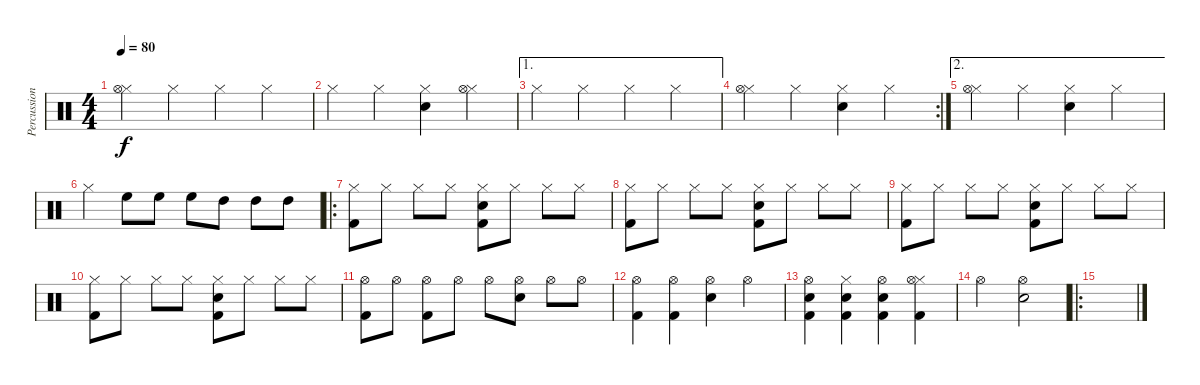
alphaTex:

\track ("Percussion" "Percussion") {instrument percussion}
\staff {score}
\articulation defaults
\ts (4 4)
\tempo 80
\clef neutral
\ks c
("Hi-Hat (closed)" "Hi-Hat (open)").4{dy f} "Hi-Hat (closed)".4 "Hi-Hat (closed)".4 "Hi-Hat (closed)".4 |
"Hi-Hat (closed)".4 "Hi-Hat (closed)".4 ("Hi-Hat (closed)" "Snare (hit) 2").4 ("Hi-Hat (closed)" "Hi-Hat (open)").4 |
\ae 1 "Hi-Hat (closed)".4 "Hi-Hat (closed)".4 "Hi-Hat (closed)".4 "Hi-Hat (closed)".4
|
\rc 2
("Hi-Hat (closed)" "Hi-Hat (open)").4 "Hi-Hat (closed)".4 ("Hi-Hat (closed)" "Snare (hit) 2").4 "Hi-Hat (closed)".4 |
\ae 2
("Hi-Hat (closed)" "Hi-Hat (open)").4 "Hi-Hat (closed)".4 ("Hi-Hat (closed)" "Snare (hit) 2").4 "Hi-Hat (closed)".4 |
"Hi-Hat (closed)".4 "High Floor Tom (hit)".8 "High Floor Tom (hit)".8 "High Floor Tom (hit)".8 "High Tom (hit)".8 "High Tom (hit)".8 "High Tom (hit)".8 |
\ro
("Hi-Hat (closed)" "Kick (hit) 2").8 "Hi-Hat (closed)".8 "Hi-Hat (closed)".8 "Hi-Hat (closed)".8 ("Hi-Hat (closed)" "Snare (hit) 2" "Kick (hit) 2").8 "Hi-Hat (closed)".8 "Hi-Hat (closed)".8 "Hi-Hat (closed)".8 |
("Hi-Hat (closed)" "Kick (hit) 2").8 "Hi-Hat (closed)".8 "Hi-Hat (closed)".8 "Hi-Hat (closed)".8 ("Hi-Hat (closed)" "Snare (hit) 2" "Kick (hit) 2").8 "Hi-Hat (closed)".8 "Hi-Hat (closed)".8 "Hi-Hat (closed)".8 |
("Hi-Hat (closed)" "Kick (hit) 2").8 "Hi-Hat (closed)".8 "Hi-Hat (closed)".8 "Hi-Hat (closed)".8 ("Hi-Hat (closed)" "Snare (hit) 2" "Kick (hit) 2").8 "Hi-Hat (closed)".8 "Hi-Hat (closed)".8 "Hi-Hat (closed)".8 |
("Hi-Hat (closed)" "Kick (hit) 2").8 "Hi-Hat (closed)".8 "Hi-Hat (closed)".8 "Hi-Hat (closed)".8 ("Hi-Hat (closed)" "Snare (hit) 2" "Kick (hit) 2").8 "Hi-Hat (closed)".8 "Hi-Hat (closed)".8 "Hi-Hat (closed)".8 |
("Hi-Hat (open)" "Kick (hit) 2").8 "Hi-Hat (open)".8 ("Hi-Hat (open)" "Kick (hit) 2").8 "Hi-Hat (open)".8 "Hi-Hat (open)".8 ("Hi-Hat (open)" "Snare (hit) 2").8 "Hi-Hat (open)".8 "Hi-Hat (open)".8 |
("Hi-Hat (open)" "Kick (hit) 2").4 ("Hi-Hat (open)" "Kick (hit) 2").4 ("Hi-Hat (open)" "Snare (hit) 2").4 "Hi-Hat (open)".4 |
("Hi-Hat (open)" "Snare (hit) 2" "Kick (hit) 2").4 ("Hi-Hat (closed)" "Snare (hit) 2" "Kick (hit) 2").4 ("Hi-Hat (open)" "Snare (hit) 2" "Kick (hit) 2").4 ("Hi-Hat (closed)" "Hi-Hat (open)" "Kick (hit) 2").4 |
"Hi-Hat (open)".2 ("Hi-Hat (open)" "Snare (hit) 2").2 |
\ro
